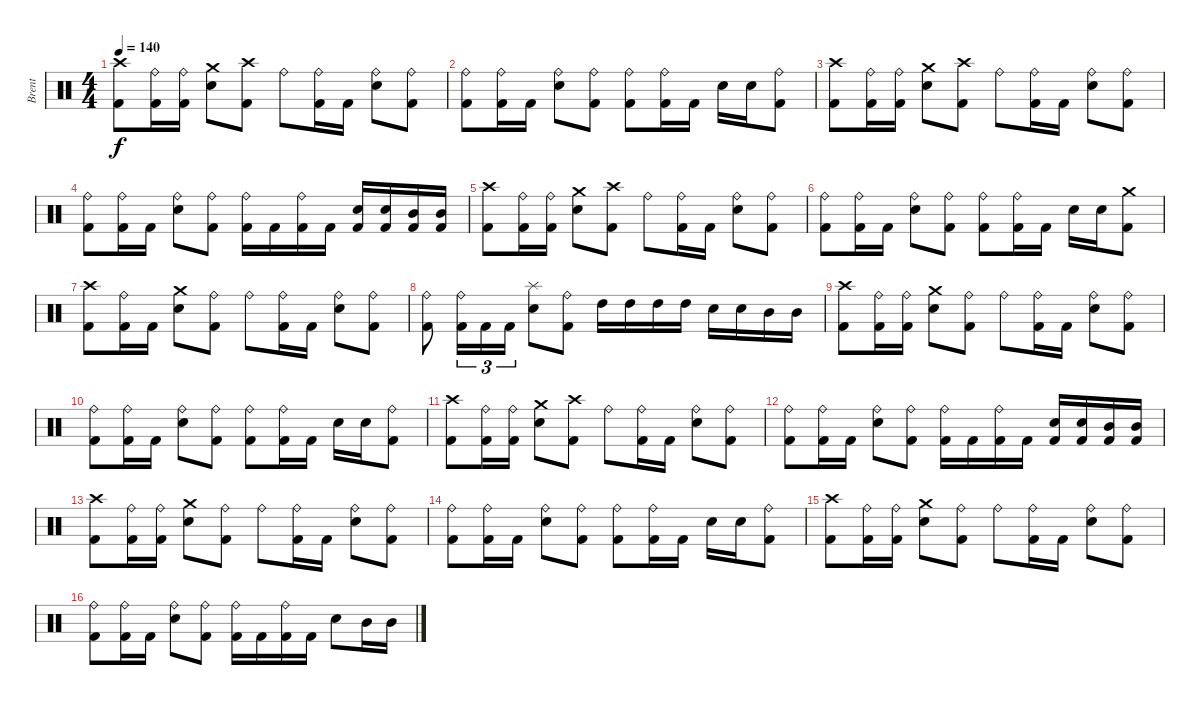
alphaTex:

\track ("Brent" "Brent") {instrument percussion}
\staff {score}
\articulation defaults
\ts (4 4)
\tempo 140
\clef neutral
\ks c
("Crash high (hit)" "Kick (hit) 2").8{dy f} ("Ride (bell)" "Kick (hit) 2").16 ("Ride (bell)" "Kick (hit) 2").16 ("Crash medium (hit)" "Snare (hit) 2").8 ("Crash high (hit)" "Kick (hit) 2").8 "Ride (bell)".8 ("Ride (bell)" "Kick (hit) 2").16 "Kick (hit) 2".16 ("Ride (bell)" "Snare (hit) 2").8 ("Ride (bell)" "Kick (hit) 2").8 |
("Ride (bell)" "Kick (hit) 2").8 ("Ride (bell)" "Kick (hit) 2").16 "Kick (hit) 2".16 ("Ride (bell)" "Snare (hit) 2").8 ("Ride (bell)" "Kick (hit) 2").8 ("Ride (bell)" "Kick (hit) 2").8 ("Ride (bell)" "Kick (hit) 2").16 "Kick (hit) 2".16 "Snare (hit) 2".16 "Snare (hit) 2".16 ("Ride (bell)" "Kick (hit) 2").8 |
("Crash high (hit)" "Kick (hit) 2").8 ("Ride (bell)" "Kick (hit) 2").16 ("Ride (bell)" "Kick (hit) 2").16 ("Crash medium (hit)" "Snare (hit) 2").8 ("Crash high (hit)" "Kick (hit) 2").8 "Ride (bell)".8 ("Ride (bell)" "Kick (hit) 2").16 "Kick (hit) 2".16 ("Ride (bell)" "Snare (hit) 2").8 ("Ride (bell)" "Kick (hit) 2").8 |
("Ride (bell)" "Kick (hit) 2").8 ("Ride (bell)" "Kick (hit) 2").16 "Kick (hit) 2".16 ("Ride (bell)" "Snare (hit) 2").8 ("Ride (bell)" "Kick (hit) 2").8 ("Ride (bell)" "Kick (hit) 2").16 "Kick (hit) 2".16 ("Ride (bell)" "Kick (hit) 2").16 "Kick (hit) 2".16 ("Snare (hit) 2" "Kick (hit) 2").16 ("Snare (hit) 2" "Kick (hit) 2").16 ("Mid Tom (hit)" "Kick (hit) 2").16 ("Mid Tom (hit)" "Kick (hit) 2").16 |
("Crash high (hit)" "Kick (hit) 2").8 ("Ride (bell)" "Kick (hit) 2").16 ("Ride (bell)" "Kick (hit) 2").16 ("Crash medium (hit)" "Snare (hit) 2").8 ("Crash high (hit)" "Kick (hit) 2").8 "Ride (bell)".8 ("Ride (bell)" "Kick (hit) 2").16 "Kick (hit) 2".16 ("Ride (bell)" "Snare (hit) 2").8 ("Ride (bell)" "Kick (hit) 2").8 |
("Ride (bell)" "Kick (hit) 2").8 ("Ride (bell)" "Kick (hit) 2").16 "Kick (hit) 2".16 ("Ride (bell)" "Snare (hit) 2").8 ("Ride (bell)" "Kick (hit) 2").8 ("Ride (bell)" "Kick (hit) 2").8 ("Ride (bell)" "Kick (hit) 2").16 "Kick (hit) 2".16 "Snare (hit) 2".16 "Snare (hit) 2".16 ("Crash medium (hit)" "Kick (hit) 2").8 |
("Crash high (hit)" "Kick (hit) 2").8 ("Ride (bell)" "Kick (hit) 2").16 "Kick (hit) 2".16 ("Crash medium (hit)" "Snare (hit) 2").8 ("Ride (bell)" "Kick (hit) 2").8 "Ride (bell)".8 ("Ride (bell)" "Kick (hit) 2").16 "Kick (hit) 2".16 ("Ride (bell)" "Snare (hit) 2").8 ("Ride (bell)" "Kick (hit) 2").8 |
("Ride (bell)" "Kick (hit) 2").8 ("Ride (bell)" "Kick (hit) 2").16{tu (3 2)} "Kick (hit) 2".16{tu (3 2)} "Kick (hit) 2".16{tu (3 2)} ("Splash (hit)" "Snare (hit) 2").8 ("Ride (bell)" "Kick (hit) 2").8 "High Tom (hit)".16 "High Tom (hit)".16 "High Tom (hit)".16 "High Tom (hit)".16 "Snare (hit) 2".16 "Snare (hit) 2".16 "Mid Tom (hit)".16 "Mid Tom (hit)".16 |
("Crash high (hit)" "Kick (hit) 2").8 ("Ride (bell)" "Kick (hit) 2").16 ("Ride (bell)" "Kick (hit) 2").16 ("Crash medium (hit)" "Snare (hit) 2").8 ("Ride (bell)" "Kick (hit) 2").8 "Ride (bell)".8 ("Ride (bell)" "Kick (hit) 2").16 "Kick (hit) 2".16 ("Ride (bell)" "Snare (hit) 2").8 ("Ride (bell)" "Kick (hit) 2").8 |
("Ride (bell)" "Kick (hit) 2").8 ("Ride (bell)" "Kick (hit) 2").16 "Kick (hit) 2".16 ("Ride (bell)" "Snare (hit) 2").8 ("Ride (bell)" "Kick (hit) 2").8 ("Ride (bell)" "Kick (hit) 2").8 ("Ride (bell)" "Kick (hit) 2").16 "Kick (hit) 2".16 "Snare (hit) 2".16 "Snare (hit) 2".16 ("Ride (bell)" "Kick (hit) 2").8 |
("Crash high (hit)" "Kick (hit) 2").8 ("Ride (bell)" "Kick (hit) 2").16 ("Ride (bell)" "Kick (hit) 2").16 ("Crash medium (hit)" "Snare (hit) 2").8 ("Crash high (hit)" "Kick (hit) 2").8 "Ride (bell)".8 ("Ride (bell)" "Kick (hit) 2").16 "Kick (hit) 2".16 ("Ride (bell)" "Snare (hit) 2").8 ("Ride (bell)" "Kick (hit) 2").8 |
("Ride (bell)" "Kick (hit) 2").8 ("Ride (bell)" "Kick (hit) 2").16 "Kick (hit) 2".16 ("Ride (bell)" "Snare (hit) 2").8 ("Ride (bell)" "Kick (hit) 2").8 ("Ride (bell)" "Kick (hit) 2").16 "Kick (hit) 2".16 ("Ride (bell)" "Kick (hit) 2").16 "Kick (hit) 2".16 ("Snare (hit) 2" "Kick (hit) 2").16 ("Snare (hit) 2" "Kick (hit) 2").16 ("Mid Tom (hit)" "Kick (hit) 2").16 ("Mid Tom (hit)" "Kick (hit) 2").16 |
("Crash high (hit)" "Kick (hit) 2").8 ("Ride (bell)" "Kick (hit) 2").16 ("Ride (bell)" "Kick (hit) 2").16 ("Crash medium (hit)" "Snare (hit) 2").8 ("Ride (bell)" "Kick (hit) 2").8 "Ride (bell)".8 ("Ride (bell)" "Kick (hit) 2").16 "Kick (hit) 2".16 ("Ride (bell)" "Snare (hit) 2").8 ("Ride (bell)" "Kick (hit) 2").8 |
("Ride (bell)" "Kick (hit) 2").8 ("Ride (bell)" "Kick (hit) 2").16 "Kick (hit) 2".16 ("Ride (bell)" "Snare (hit) 2").8 ("Ride (bell)" "Kick (hit) 2").8 ("Ride (bell)" "Kick (hit) 2").8 ("Ride (bell)" "Kick (hit) 2").16 "Kick (hit) 2".16 "Snare (hit) 2".16 "Snare (hit) 2".16 ("Ride (bell)" "Kick (hit) 2").8 |
("Crash high (hit)" "Kick (hit) 2").8 ("Ride (bell)" "Kick (hit) 2").16 ("Ride (bell)" "Kick (hit) 2").16 ("Crash medium (hit)" "Snare (hit) 2").8 ("Ride (bell)" "Kick (hit) 2").8 "Ride (bell)".8 ("Ride (bell)" "Kick (hit) 2").16 "Kick (hit) 2".16 ("Ride (bell)" "Snare (hit) 2").8 ("Ride (bell)" "Kick (hit) 2").8 |
("Ride (bell)" "Kick (hit) 2").8 ("Ride (bell)" "Kick (hit) 2").16 "Kick (hit) 2".16 ("Ride (bell)" "Snare (hit) 2").8 ("Ride (bell)" "Kick (hit) 2").8 ("Ride (bell)" "Kick (hit) 2").16 "Kick (hit) 2".16 ("Ride (bell)" "Kick (hit) 2").16 "Kick (hit) 2".16 "Snare (hit) 2".8 "Mid Tom (hit)".16 "Mid Tom (hit)".16
